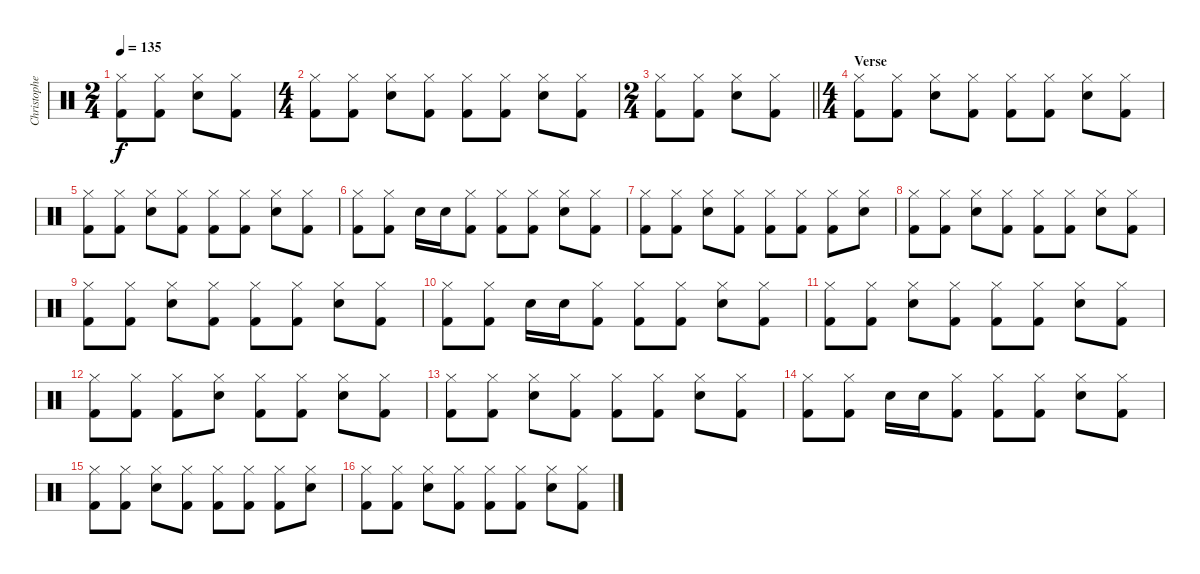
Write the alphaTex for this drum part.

\track ("Christopher - Drums" "Christophe") {instrument percussion}
\staff {score}
\articulation defaults
\ts (2 4)
\tempo 135
\clef neutral
\ks c
("Hi-Hat (closed)" "Kick (hit) 2").8{dy f} ("Hi-Hat (closed)" "Kick (hit) 2").8 ("Hi-Hat (closed)" "Snare (hit) 2").8 ("Hi-Hat (closed)" "Kick (hit) 2").8 |
\ts (4 4)
("Hi-Hat (closed)" "Kick (hit) 2").8 ("Hi-Hat (closed)" "Kick (hit) 2").8 ("Hi-Hat (closed)" "Snare (hit) 2").8 ("Hi-Hat (closed)" "Kick (hit) 2").8 ("Hi-Hat (closed)" "Kick (hit) 2").8 ("Hi-Hat (closed)" "Kick (hit) 2").8 ("Hi-Hat (closed)" "Snare (hit) 2").8 ("Hi-Hat (closed)" "Kick (hit) 2").8 |
\ts (2 4)
\barLineRight lightlight
("Hi-Hat (closed)" "Kick (hit) 2").8 ("Hi-Hat (closed)" "Kick (hit) 2").8 ("Hi-Hat (closed)" "Snare (hit) 2").8 ("Hi-Hat (closed)" "Kick (hit) 2").8 |
\ts (4 4)
\section ("" "Verse")
("Hi-Hat (closed)" "Kick (hit) 2").8{volume 14} ("Hi-Hat (closed)" "Kick (hit) 2").8 ("Hi-Hat (closed)" "Snare (hit) 2").8 ("Hi-Hat (closed)" "Kick (hit) 2").8 ("Hi-Hat (closed)" "Kick (hit) 2").8 ("Hi-Hat (closed)" "Kick (hit) 2").8 ("Hi-Hat (closed)" "Snare (hit) 2").8 ("Hi-Hat (closed)" "Kick (hit) 2").8 |
("Hi-Hat (closed)" "Kick (hit) 2").8 ("Hi-Hat (closed)" "Kick (hit) 2").8 ("Hi-Hat (closed)" "Snare (hit) 2").8 ("Hi-Hat (closed)" "Kick (hit) 2").8 ("Hi-Hat (closed)" "Kick (hit) 2").8 ("Hi-Hat (closed)" "Kick (hit) 2").8 ("Hi-Hat (closed)" "Snare (hit) 2").8 ("Hi-Hat (closed)" "Kick (hit) 2").8 |
("Hi-Hat (closed)" "Kick (hit) 2").8 ("Hi-Hat (closed)" "Kick (hit) 2").8 "Snare (hit) 2".16 "Snare (hit) 2".16 ("Hi-Hat (closed)" "Kick (hit) 2").8 ("Hi-Hat (closed)" "Kick (hit) 2").8 ("Hi-Hat (closed)" "Kick (hit) 2").8 ("Hi-Hat (closed)" "Snare (hit) 2").8 ("Hi-Hat (closed)" "Kick (hit) 2").8 |
("Hi-Hat (closed)" "Kick (hit) 2").8 ("Hi-Hat (closed)" "Kick (hit) 2").8 ("Hi-Hat (closed)" "Snare (hit) 2").8 ("Hi-Hat (closed)" "Kick (hit) 2").8 ("Hi-Hat (closed)" "Kick (hit) 2").8 ("Hi-Hat (closed)" "Kick (hit) 2").8 ("Hi-Hat (closed)" "Kick (hit) 2").8 ("Hi-Hat (closed)" "Snare (hit) 2").8 |
("Hi-Hat (closed)" "Kick (hit) 2").8 ("Hi-Hat (closed)" "Kick (hit) 2").8 ("Hi-Hat (closed)" "Snare (hit) 2").8 ("Hi-Hat (closed)" "Kick (hit) 2").8 ("Hi-Hat (closed)" "Kick (hit) 2").8 ("Hi-Hat (closed)" "Kick (hit) 2").8 ("Hi-Hat (closed)" "Snare (hit) 2").8 ("Hi-Hat (closed)" "Kick (hit) 2").8 |
("Hi-Hat (closed)" "Kick (hit) 2").8 ("Hi-Hat (closed)" "Kick (hit) 2").8 ("Hi-Hat (closed)" "Snare (hit) 2").8 ("Hi-Hat (closed)" "Kick (hit) 2").8 ("Hi-Hat (closed)" "Kick (hit) 2").8 ("Hi-Hat (closed)" "Kick (hit) 2").8 ("Hi-Hat (closed)" "Snare (hit) 2").8 ("Hi-Hat (closed)" "Kick (hit) 2").8 |
("Hi-Hat (closed)" "Kick (hit) 2").8 ("Hi-Hat (closed)" "Kick (hit) 2").8 "Snare (hit) 2".16 "Snare (hit) 2".16 ("Hi-Hat (closed)" "Kick (hit) 2").8 ("Hi-Hat (closed)" "Kick (hit) 2").8 ("Hi-Hat (closed)" "Kick (hit) 2").8 ("Hi-Hat (closed)" "Snare (hit) 2").8 ("Hi-Hat (closed)" "Kick (hit) 2").8 |
("Hi-Hat (closed)" "Kick (hit) 2").8 ("Hi-Hat (closed)" "Kick (hit) 2").8 ("Hi-Hat (closed)" "Snare (hit) 2").8 ("Hi-Hat (closed)" "Kick (hit) 2").8 ("Hi-Hat (closed)" "Kick (hit) 2").8 ("Hi-Hat (closed)" "Kick (hit) 2").8 ("Hi-Hat (closed)" "Snare (hit) 2").8 ("Hi-Hat (closed)" "Kick (hit) 2").8 |
("Hi-Hat (closed)" "Kick (hit) 2").8 ("Hi-Hat (closed)" "Kick (hit) 2").8 ("Hi-Hat (closed)" "Kick (hit) 2").8 ("Hi-Hat (closed)" "Snare (hit) 2").8 ("Hi-Hat (closed)" "Kick (hit) 2").8 ("Hi-Hat (closed)" "Kick (hit) 2").8 ("Hi-Hat (closed)" "Snare (hit) 2").8 ("Hi-Hat (closed)" "Kick (hit) 2").8 |
("Hi-Hat (closed)" "Kick (hit) 2").8 ("Hi-Hat (closed)" "Kick (hit) 2").8 ("Hi-Hat (closed)" "Snare (hit) 2").8 ("Hi-Hat (closed)" "Kick (hit) 2").8 ("Hi-Hat (closed)" "Kick (hit) 2").8 ("Hi-Hat (closed)" "Kick (hit) 2").8 ("Hi-Hat (closed)" "Snare (hit) 2").8 ("Hi-Hat (closed)" "Kick (hit) 2").8 |
("Hi-Hat (closed)" "Kick (hit) 2").8 ("Hi-Hat (closed)" "Kick (hit) 2").8 "Snare (hit) 2".16 "Snare (hit) 2".16 ("Hi-Hat (closed)" "Kick (hit) 2").8 ("Hi-Hat (closed)" "Kick (hit) 2").8 ("Hi-Hat (closed)" "Kick (hit) 2").8 ("Hi-Hat (closed)" "Snare (hit) 2").8 ("Hi-Hat (closed)" "Kick (hit) 2").8 |
("Hi-Hat (closed)" "Kick (hit) 2").8 ("Hi-Hat (closed)" "Kick (hit) 2").8 ("Hi-Hat (closed)" "Snare (hit) 2").8 ("Hi-Hat (closed)" "Kick (hit) 2").8 ("Hi-Hat (closed)" "Kick (hit) 2").8 ("Hi-Hat (closed)" "Kick (hit) 2").8 ("Hi-Hat (closed)" "Kick (hit) 2").8 ("Hi-Hat (closed)" "Snare (hit) 2").8 |
("Hi-Hat (closed)" "Kick (hit) 2").8 ("Hi-Hat (closed)" "Kick (hit) 2").8 ("Hi-Hat (closed)" "Snare (hit) 2").8 ("Hi-Hat (closed)" "Kick (hit) 2").8 ("Hi-Hat (closed)" "Kick (hit) 2").8 ("Hi-Hat (closed)" "Kick (hit) 2").8 ("Hi-Hat (closed)" "Snare (hit) 2").8 ("Hi-Hat (closed)" "Kick (hit) 2").8
